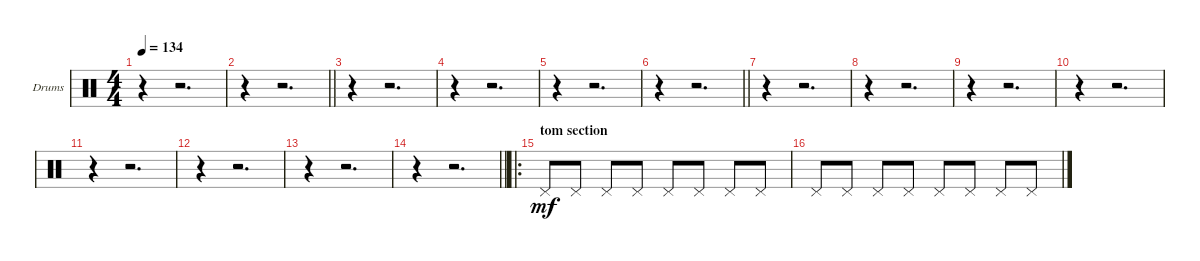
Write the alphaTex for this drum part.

\bracketExtendMode groupsimilarinstruments
\firstSystemTrackNameOrientation horizontal
\otherSystemsTrackNameOrientation horizontal
\track ("Drumkit" "Drums") {instrument percussion}
\staff {score}
\articulation defaults
\ts (4 4)
\tempo 134
\clef neutral
\ks c
r.4{dy mf} r.2{d} |
\barLineRight lightlight
r.4 r.2{d} |
r.4 r.2{d} |
r.4 r.2{d} |
r.4 r.2{d} |
\barLineRight lightlight
r.4 r.2{d} |
r.4 r.2{d} |
r.4 r.2{d} |
r.4 r.2{d} |
r.4 r.2{d} |
r.4 r.2{d} |
r.4 r.2{d} |
r.4 r.2{d} |
\barLineRight lightlight
r.4 r.2{d} |
\ro
\section ("" "tom section")
"Pedal Hi-Hat (hit)".8 "Pedal Hi-Hat (hit)".8 "Pedal Hi-Hat (hit)".8 "Pedal Hi-Hat (hit)".8 "Pedal Hi-Hat (hit)".8 "Pedal Hi-Hat (hit)".8 "Pedal Hi-Hat (hit)".8 "Pedal Hi-Hat (hit)".8 |
"Pedal Hi-Hat (hit)".8 "Pedal Hi-Hat (hit)".8 "Pedal Hi-Hat (hit)".8 "Pedal Hi-Hat (hit)".8 "Pedal Hi-Hat (hit)".8 "Pedal Hi-Hat (hit)".8 "Pedal Hi-Hat (hit)".8 "Pedal Hi-Hat (hit)".8
